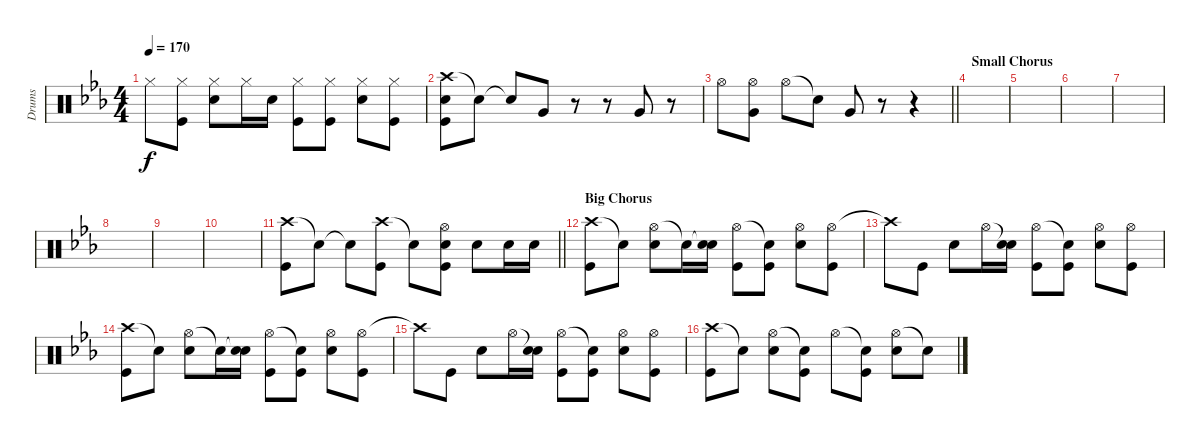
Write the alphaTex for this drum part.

\track ("Drums" "Drums") {solo instrument percussion}
\staff {score}
\articulation defaults
\ts (4 4)
\tempo 170
\clef neutral
\ks eb "Hi-Hat (closed)".8{dy f}
("Hi-Hat (closed)" "Kick (hit)").8 ("Hi-Hat (closed)" "Snare (hit) 2").8 "Hi-Hat (closed)".16 "Snare (hit) 2".16 ("Hi-Hat (closed)" "Kick (hit)").8 ("Hi-Hat (closed)" "Kick (hit)").8 ("Hi-Hat (closed)" "Snare (hit) 2").8 ("Hi-Hat (closed)" "Kick (hit)").8 |
("Crash high (hit)" "Snare (hit) 2" "Kick (hit)").8 "Snare (hit)"{t}.8 "Snare (hit)"{t}.8 "Very Low Tom (hit)".8 r.8 r.8 "Very Low Tom (hit)".8 r.8 |
\barLineRight lightlight "Hi-Hat (open)".8
("Hi-Hat (open)" "Very Low Tom (hit)").8 "Hi-Hat (open)".8 "Snare (hit)"{t}.8 "Very Low Tom (hit)".8 r.8 r.4 |
\section ("" "Small Chorus")
|
|
|
|
|
|
|
\barLineRight lightlight
("Crash high (hit)" "Kick (hit)").8 "Snare (hit)"{t}.8 "Snare (hit)"{t}.8 ("Crash high (hit)" "Kick (hit)").8 "Snare (hit)"{t}.8 ("Hi-Hat (open)" "Snare (hit) 2" "Kick (hit)").8 "Snare (hit) 2".8 "Snare (hit) 2".16 "Snare (hit) 2".16 |
\section ("" "Big Chorus")
("Crash high (hit)" "Kick (hit)").8 "Snare (hit)"{t}.8 ("Hi-Hat (open)" "Snare (hit) 2").8 "Snare (hit)"{t}.16 ("Snare (hit)"{t} "Snare (hit) 2").16 ("Hi-Hat (open)" "Kick (hit)").8 ("Snare (hit)"{t} "Kick (hit)").8 ("Hi-Hat (open)" "Snare (hit) 2").8 ("Hi-Hat (open)" "Kick (hit)").8 |
"Crash high (hit)"{t}.8 "Kick (hit)".8 "Snare (hit) 2".8 "Hi-Hat (open)".16 ("Snare (hit)"{t} "Snare (hit) 2").16 ("Hi-Hat (open)" "Kick (hit)").8 ("Snare (hit)"{t} "Kick (hit)").8 ("Hi-Hat (open)" "Snare (hit) 2").8 ("Hi-Hat (open)" "Kick (hit)").8 |
("Crash high (hit)" "Kick (hit)").8 "Snare (hit)"{t}.8 ("Hi-Hat (open)" "Snare (hit) 2").8 "Snare (hit)"{t}.16 ("Snare (hit)"{t} "Snare (hit) 2").16 ("Hi-Hat (open)" "Kick (hit)").8 ("Snare (hit)"{t} "Kick (hit)").8 ("Hi-Hat (open)" "Snare (hit) 2").8 ("Hi-Hat (open)" "Kick (hit)").8 |
"Crash high (hit)"{t}.8 "Kick (hit)".8 "Snare (hit) 2".8 "Hi-Hat (open)".16 ("Snare (hit)"{t} "Snare (hit) 2").16 ("Hi-Hat (open)" "Kick (hit)").8 ("Snare (hit)"{t} "Kick (hit)").8 ("Hi-Hat (open)" "Snare (hit) 2").8 ("Hi-Hat (open)" "Kick (hit)").8 |
("Crash high (hit)" "Kick (hit)").8 "Snare (hit)"{t}.8 ("Hi-Hat (open)" "Snare (hit) 2").8 ("Snare (hit)"{t} "Kick (hit)").8 "Hi-Hat (open)".8 ("Snare (hit)"{t} "Kick (hit)").8 ("Hi-Hat (open)" "Snare (hit) 2").8 "Snare (hit)"{t}.8
